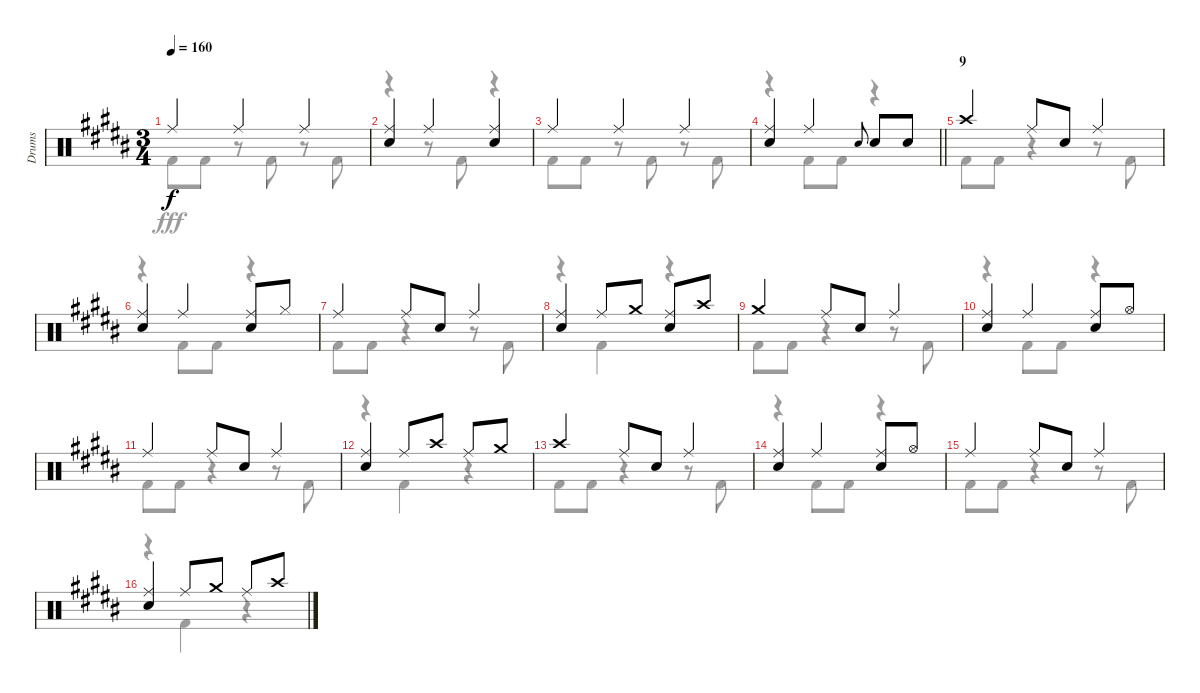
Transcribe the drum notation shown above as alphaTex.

\track ("Drums" "Drums") {instrument percussion}
\staff {score}
\articulation defaults
\voice
\ts (3 4)
\tempo 160
\clef neutral
\ks b "Ride (middle)".4{dy f} "Ride (middle)".4 "Ride (middle)".4
|
("Ride (middle)" "Snare (hit) 2").4 "Ride (middle)".4 ("Ride (middle)" "Snare (hit) 2").4 |
"Ride (middle)".4 "Ride (middle)".4 "Ride (middle)".4 |
\barLineRight lightlight
("Ride (middle)" "Snare (hit) 2").4 "Ride (middle)".4 "Snare (hit) 2".8{gr onbeat} "Snare (hit) 2".8 "Snare (hit) 2".8 |
\section ("" "9")
"Crash high (hit)".4 "Ride (middle)".8 "Snare (hit) 2".8 "Ride (middle)".4 |
("Ride (middle)" "Snare (hit) 2").4 "Ride (middle)".4 ("Ride (middle)" "Snare (hit) 2").8 "Hi-Hat (closed)".8 |
"Ride (middle)".4 "Ride (middle)".8 "Snare (hit) 2".8 "Ride (middle)".4 |
("Ride (middle)" "Snare (hit) 2").4 "Ride (middle)".8 "Crash medium (hit)".8 ("Ride (middle)" "Snare (hit) 2").8 "Crash high (hit)".8 |
"Crash medium (hit)".4 "Ride (middle)".8 "Snare (hit) 2".8 "Ride (middle)".4 |
("Ride (middle)" "Snare (hit) 2").4 "Ride (middle)".4 ("Ride (middle)" "Snare (hit) 2").8 "Hi-Hat (open)".8 |
"Ride (middle)".4 "Ride (middle)".8 "Snare (hit) 2".8 "Ride (middle)".4 |
("Ride (middle)" "Snare (hit) 2").4 "Ride (middle)".8 "Crash high (hit)".8 "Ride (middle)".8 "Crash medium (hit)".8 |
"Crash high (hit)".4 "Ride (middle)".8 "Snare (hit) 2".8 "Ride (middle)".4 |
("Ride (middle)" "Snare (hit) 2").4 "Ride (middle)".4 ("Ride (middle)" "Snare (hit) 2").8 "Hi-Hat (open)".8 |
"Ride (middle)".4 "Ride (middle)".8 "Snare (hit) 2".8 "Ride (middle)".4 |
("Ride (middle)" "Snare (hit) 2").4 "Ride (middle)".8 "Crash medium (hit)".8 "Ride (middle)".8 "Crash high (hit)".8
\voice
\clef neutral
\ottava regular
\simile none
\ks b "Kick (hit) 2".8{dy fff} "Kick (hit) 2".8
r.8 "Kick (hit) 2".8 r.8 "Kick (hit) 2".8 |
r.4 r.8 "Kick (hit) 2".8 r.4 |
"Kick (hit) 2".8 "Kick (hit) 2".8 r.8 "Kick (hit) 2".8 r.8 "Kick (hit) 2".8 |
\barLineRight lightlight
r.4 "Kick (hit) 2".8 "Kick (hit) 2".8 r.4 |
"Kick (hit) 2".8 "Kick (hit) 2".8 r.4 r.8 "Kick (hit) 2".8 |
r.4 "Kick (hit) 2".8 "Kick (hit) 2".8 r.4 |
"Kick (hit) 2".8 "Kick (hit) 2".8 r.4 r.8 "Kick (hit) 2".8 |
r.4 "Kick (hit) 2".4 r.4 |
"Kick (hit) 2".8 "Kick (hit) 2".8 r.4 r.8 "Kick (hit) 2".8 |
r.4 "Kick (hit) 2".8 "Kick (hit) 2".8 r.4 |
"Kick (hit) 2".8 "Kick (hit) 2".8 r.4 r.8 "Kick (hit) 2".8 |
r.4 "Kick (hit) 2".4 r.4 |
"Kick (hit) 2".8 "Kick (hit) 2".8 r.4 r.8 "Kick (hit) 2".8 |
r.4 "Kick (hit) 2".8 "Kick (hit) 2".8 r.4 |
"Kick (hit) 2".8 "Kick (hit) 2".8 r.4 r.8 "Kick (hit) 2".8 |
r.4 "Kick (hit) 2".4 r.4
